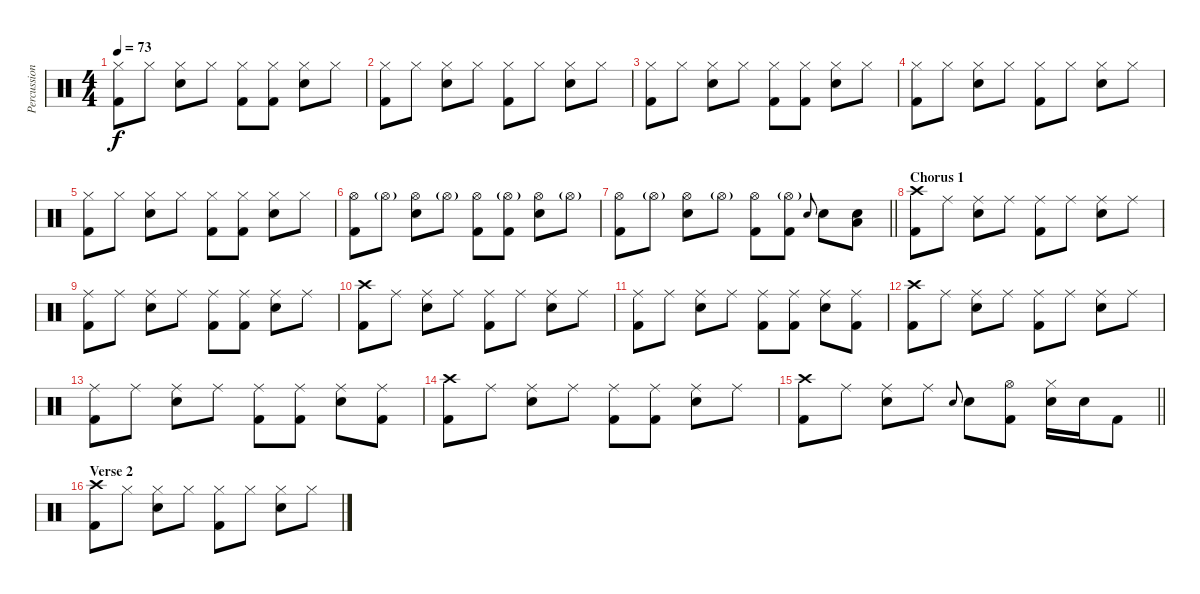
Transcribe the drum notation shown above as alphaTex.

\track ("Percussion" "Percussion") {instrument percussion}
\staff {score}
\articulation defaults
\ts (4 4)
\tempo 73
\clef neutral
\ks c
("Hi-Hat (closed)" "Kick (hit) 2").8{dy f} "Hi-Hat (closed)".8 ("Hi-Hat (closed)" "Electric Snare (hit)").8 "Hi-Hat (closed)".8 ("Hi-Hat (closed)" "Kick (hit) 2").8 ("Hi-Hat (closed)" "Kick (hit) 2").8 ("Hi-Hat (closed)" "Electric Snare (hit)").8 "Hi-Hat (closed)".8 |
("Hi-Hat (closed)" "Kick (hit) 2").8 "Hi-Hat (closed)".8 ("Hi-Hat (closed)" "Electric Snare (hit)").8 "Hi-Hat (closed)".8 ("Hi-Hat (closed)" "Kick (hit) 2").8 "Hi-Hat (closed)".8 ("Hi-Hat (closed)" "Electric Snare (hit)").8 "Hi-Hat (closed)".8 |
("Hi-Hat (closed)" "Kick (hit) 2").8 "Hi-Hat (closed)".8 ("Hi-Hat (closed)" "Electric Snare (hit)").8 "Hi-Hat (closed)".8 ("Hi-Hat (closed)" "Kick (hit) 2").8 ("Hi-Hat (closed)" "Kick (hit) 2").8 ("Hi-Hat (closed)" "Electric Snare (hit)").8 "Hi-Hat (closed)".8 |
("Hi-Hat (closed)" "Kick (hit) 2").8 "Hi-Hat (closed)".8 ("Hi-Hat (closed)" "Electric Snare (hit)").8 "Hi-Hat (closed)".8 ("Hi-Hat (closed)" "Kick (hit) 2").8 "Hi-Hat (closed)".8 ("Hi-Hat (closed)" "Electric Snare (hit)").8 "Hi-Hat (closed)".8 |
("Hi-Hat (closed)" "Kick (hit) 2").8 "Hi-Hat (closed)".8 ("Hi-Hat (closed)" "Electric Snare (hit)").8 "Hi-Hat (closed)".8 ("Hi-Hat (closed)" "Kick (hit) 2").8 ("Hi-Hat (closed)" "Kick (hit) 2").8 ("Hi-Hat (closed)" "Electric Snare (hit)").8 "Hi-Hat (closed)".8 |
("Hi-Hat (open)" "Kick (hit) 2").8 "Hi-Hat (open)"{g}.8 ("Hi-Hat (open)" "Electric Snare (hit)").8 "Hi-Hat (open)"{g}.8 ("Hi-Hat (open)" "Kick (hit) 2").8 ("Hi-Hat (open)"{g} "Kick (hit) 2").8 ("Hi-Hat (open)" "Electric Snare (hit)").8 "Hi-Hat (open)"{g}.8 |
\barLineRight lightlight
("Hi-Hat (open)" "Kick (hit) 2").8 "Hi-Hat (open)"{g}.8 ("Hi-Hat (open)" "Electric Snare (hit)").8 "Hi-Hat (open)"{g}.8 ("Hi-Hat (open)" "Kick (hit) 2").8 ("Hi-Hat (open)"{g} "Kick (hit) 2").8 "Electric Snare (hit)".8{gr onbeat} "Electric Snare (hit)".8 ("Electric Snare (hit)" "Low Floor Tom (hit)").8 |
\section ("" "Chorus 1")
("Crash high (hit)" "Kick (hit) 2").8 "Ride (middle)".8 ("Ride (middle)" "Electric Snare (hit)").8 "Ride (middle)".8 ("Ride (middle)" "Kick (hit) 2").8 "Ride (middle)".8 ("Ride (middle)" "Electric Snare (hit)").8 "Ride (middle)".8 |
("Ride (middle)" "Kick (hit) 2").8 "Ride (middle)".8 ("Ride (middle)" "Electric Snare (hit)").8 "Ride (middle)".8 ("Ride (middle)" "Kick (hit) 2").8 ("Ride (middle)" "Kick (hit) 2").8 ("Ride (middle)" "Electric Snare (hit)").8 "Ride (middle)".8 |
("Crash high (hit)" "Kick (hit) 2").8 "Ride (middle)".8 ("Ride (middle)" "Electric Snare (hit)").8 "Ride (middle)".8 ("Ride (middle)" "Kick (hit) 2").8 "Ride (middle)".8 ("Ride (middle)" "Electric Snare (hit)").8 "Ride (middle)".8 |
("Ride (middle)" "Kick (hit) 2").8 "Ride (middle)".8 ("Ride (middle)" "Electric Snare (hit)").8 "Ride (middle)".8 ("Ride (middle)" "Kick (hit) 2").8 ("Ride (middle)" "Kick (hit) 2").8 ("Ride (middle)" "Electric Snare (hit)").8 ("Ride (middle)" "Kick (hit) 2").8 |
("Crash high (hit)" "Kick (hit) 2").8 "Ride (middle)".8 ("Ride (middle)" "Electric Snare (hit)").8 "Ride (middle)".8 ("Ride (middle)" "Kick (hit) 2").8 "Ride (middle)".8 ("Ride (middle)" "Electric Snare (hit)").8 "Ride (middle)".8 |
("Ride (middle)" "Kick (hit) 2").8 "Ride (middle)".8 ("Ride (middle)" "Electric Snare (hit)").8 "Ride (middle)".8 ("Ride (middle)" "Kick (hit) 2").8 ("Ride (middle)" "Kick (hit) 2").8 ("Ride (middle)" "Electric Snare (hit)").8 ("Ride (middle)" "Kick (hit) 2").8 |
("Crash high (hit)" "Kick (hit) 2").8 "Ride (middle)".8 ("Ride (middle)" "Electric Snare (hit)").8 "Ride (middle)".8 ("Ride (middle)" "Kick (hit) 2").8 ("Ride (middle)" "Kick (hit) 2").8 ("Ride (middle)" "Electric Snare (hit)").8 "Ride (middle)".8 |
\barLineRight lightlight
("Crash high (hit)" "Kick (hit) 2").8 "Ride (middle)".8 ("Ride (middle)" "Electric Snare (hit)").8 "Ride (middle)".8 "Electric Snare (hit)".8{gr onbeat} "Electric Snare (hit)".8 ("Hi-Hat (open)" "Kick (hit) 2").8 ("Hi-Hat (closed)" "Electric Snare (hit)").16 "Electric Snare (hit)".16 "Kick (hit) 2".8 |
\section ("" "Verse 2")
("Crash high (hit)" "Kick (hit) 2").8 "Hi-Hat (closed)".8 ("Hi-Hat (closed)" "Electric Snare (hit)").8 "Hi-Hat (closed)".8 ("Hi-Hat (closed)" "Kick (hit) 2").8 "Hi-Hat (closed)".8 ("Hi-Hat (closed)" "Electric Snare (hit)").8 "Hi-Hat (closed)".8
